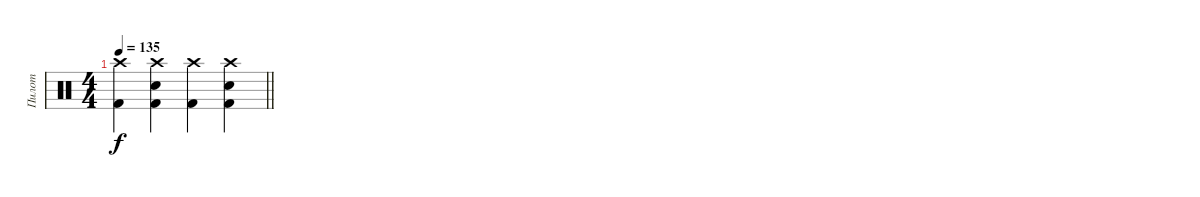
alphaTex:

\track ("Пилот" "Пилот") {instrument percussion}
\staff {score}
\articulation defaults
\ts (4 4)
\tempo 135
\clef neutral
\barLineRight lightlight
\ks c
("Crash high (hit)" "Kick (hit) 2").4{dy f} ("Crash high (hit)" "Kick (hit) 2" "Snare (hit) 2").4 ("Crash high (hit)" "Kick (hit) 2").4 ("Crash high (hit)" "Kick (hit) 2" "Snare (hit) 2").4
